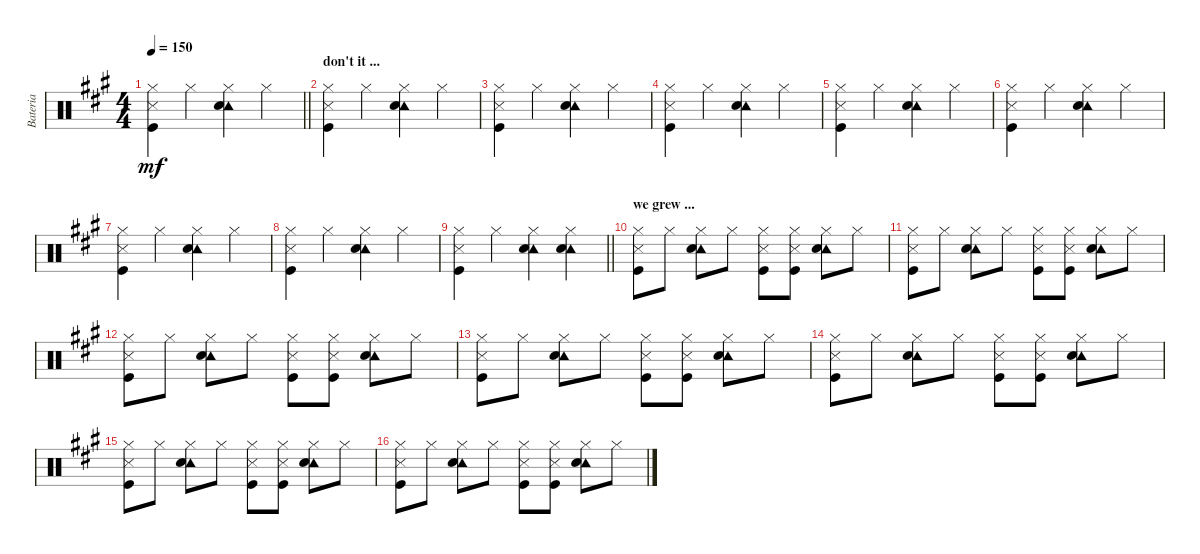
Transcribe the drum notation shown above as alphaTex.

\track ("Bateria" "Bateria") {instrument percussion}
\staff {score}
\articulation defaults
\ts (4 4)
\tempo 150
\clef neutral
\barLineRight lightlight
\ks a
("Hi-Hat (closed)" "Metronome (hit)" "Kick (hit)").4{dy mf} "Hi-Hat (closed)".4 ("Tambourine (hit)" "Hi-Hat (closed)" "Electric Snare (hit)").4 "Hi-Hat (closed)".4 |
\section ("" "don't it ...")
("Hi-Hat (closed)" "Metronome (hit)" "Kick (hit)").4 "Hi-Hat (closed)".4 ("Tambourine (hit)" "Hi-Hat (closed)" "Electric Snare (hit)").4 "Hi-Hat (closed)".4 |
("Hi-Hat (closed)" "Metronome (hit)" "Kick (hit)").4 "Hi-Hat (closed)".4 ("Tambourine (hit)" "Hi-Hat (closed)" "Electric Snare (hit)").4 "Hi-Hat (closed)".4 |
("Hi-Hat (closed)" "Metronome (hit)" "Kick (hit)").4 "Hi-Hat (closed)".4 ("Tambourine (hit)" "Hi-Hat (closed)" "Electric Snare (hit)").4 "Hi-Hat (closed)".4 |
("Hi-Hat (closed)" "Metronome (hit)" "Kick (hit)").4 "Hi-Hat (closed)".4 ("Tambourine (hit)" "Hi-Hat (closed)" "Electric Snare (hit)").4 "Hi-Hat (closed)".4 |
("Hi-Hat (closed)" "Metronome (hit)" "Kick (hit)").4 "Hi-Hat (closed)".4 ("Tambourine (hit)" "Hi-Hat (closed)" "Electric Snare (hit)").4 "Hi-Hat (closed)".4 |
("Hi-Hat (closed)" "Metronome (hit)" "Kick (hit)").4 "Hi-Hat (closed)".4 ("Tambourine (hit)" "Hi-Hat (closed)" "Electric Snare (hit)").4 "Hi-Hat (closed)".4 |
("Hi-Hat (closed)" "Metronome (hit)" "Kick (hit)").4 "Hi-Hat (closed)".4 ("Tambourine (hit)" "Hi-Hat (closed)" "Electric Snare (hit)").4 "Hi-Hat (closed)".4 |
\barLineRight lightlight
("Hi-Hat (closed)" "Metronome (hit)" "Kick (hit)").4 "Hi-Hat (closed)".4 ("Tambourine (hit)" "Hi-Hat (closed)" "Electric Snare (hit)").4 ("Tambourine (hit)" "Hi-Hat (closed)" "Electric Snare (hit)").4 |
\section ("" "we grew ...")
("Hi-Hat (closed)" "Metronome (hit)" "Kick (hit)").8 "Hi-Hat (closed)".8 ("Tambourine (hit)" "Hi-Hat (closed)" "Electric Snare (hit)").8 "Hi-Hat (closed)".8 ("Hi-Hat (closed)" "Metronome (hit)" "Kick (hit)").8 ("Hi-Hat (closed)" "Metronome (hit)" "Kick (hit)").8 ("Tambourine (hit)" "Hi-Hat (closed)" "Electric Snare (hit)").8 "Hi-Hat (closed)".8 |
("Hi-Hat (closed)" "Metronome (hit)" "Kick (hit)").8 "Hi-Hat (closed)".8 ("Tambourine (hit)" "Hi-Hat (closed)" "Electric Snare (hit)").8 "Hi-Hat (closed)".8 ("Hi-Hat (closed)" "Metronome (hit)" "Kick (hit)").8 ("Hi-Hat (closed)" "Metronome (hit)" "Kick (hit)").8 ("Tambourine (hit)" "Hi-Hat (closed)" "Electric Snare (hit)").8 "Hi-Hat (closed)".8 |
("Hi-Hat (closed)" "Metronome (hit)" "Kick (hit)").8 "Hi-Hat (closed)".8 ("Tambourine (hit)" "Hi-Hat (closed)" "Electric Snare (hit)").8 "Hi-Hat (closed)".8 ("Hi-Hat (closed)" "Metronome (hit)" "Kick (hit)").8 ("Hi-Hat (closed)" "Metronome (hit)" "Kick (hit)").8 ("Tambourine (hit)" "Hi-Hat (closed)" "Electric Snare (hit)").8 "Hi-Hat (closed)".8 |
("Hi-Hat (closed)" "Metronome (hit)" "Kick (hit)").8 "Hi-Hat (closed)".8 ("Tambourine (hit)" "Hi-Hat (closed)" "Electric Snare (hit)").8 "Hi-Hat (closed)".8 ("Hi-Hat (closed)" "Metronome (hit)" "Kick (hit)").8 ("Hi-Hat (closed)" "Metronome (hit)" "Kick (hit)").8 ("Tambourine (hit)" "Hi-Hat (closed)" "Electric Snare (hit)").8 "Hi-Hat (closed)".8 |
("Hi-Hat (closed)" "Metronome (hit)" "Kick (hit)").8 "Hi-Hat (closed)".8 ("Tambourine (hit)" "Hi-Hat (closed)" "Electric Snare (hit)").8 "Hi-Hat (closed)".8 ("Hi-Hat (closed)" "Metronome (hit)" "Kick (hit)").8 ("Hi-Hat (closed)" "Metronome (hit)" "Kick (hit)").8 ("Tambourine (hit)" "Hi-Hat (closed)" "Electric Snare (hit)").8 "Hi-Hat (closed)".8 |
("Hi-Hat (closed)" "Metronome (hit)" "Kick (hit)").8 "Hi-Hat (closed)".8 ("Tambourine (hit)" "Hi-Hat (closed)" "Electric Snare (hit)").8 "Hi-Hat (closed)".8 ("Hi-Hat (closed)" "Metronome (hit)" "Kick (hit)").8 ("Hi-Hat (closed)" "Metronome (hit)" "Kick (hit)").8 ("Tambourine (hit)" "Hi-Hat (closed)" "Electric Snare (hit)").8 "Hi-Hat (closed)".8 |
("Hi-Hat (closed)" "Metronome (hit)" "Kick (hit)").8 "Hi-Hat (closed)".8 ("Tambourine (hit)" "Hi-Hat (closed)" "Electric Snare (hit)").8 "Hi-Hat (closed)".8 ("Hi-Hat (closed)" "Metronome (hit)" "Kick (hit)").8 ("Hi-Hat (closed)" "Metronome (hit)" "Kick (hit)").8 ("Tambourine (hit)" "Hi-Hat (closed)" "Electric Snare (hit)").8 "Hi-Hat (closed)".8
